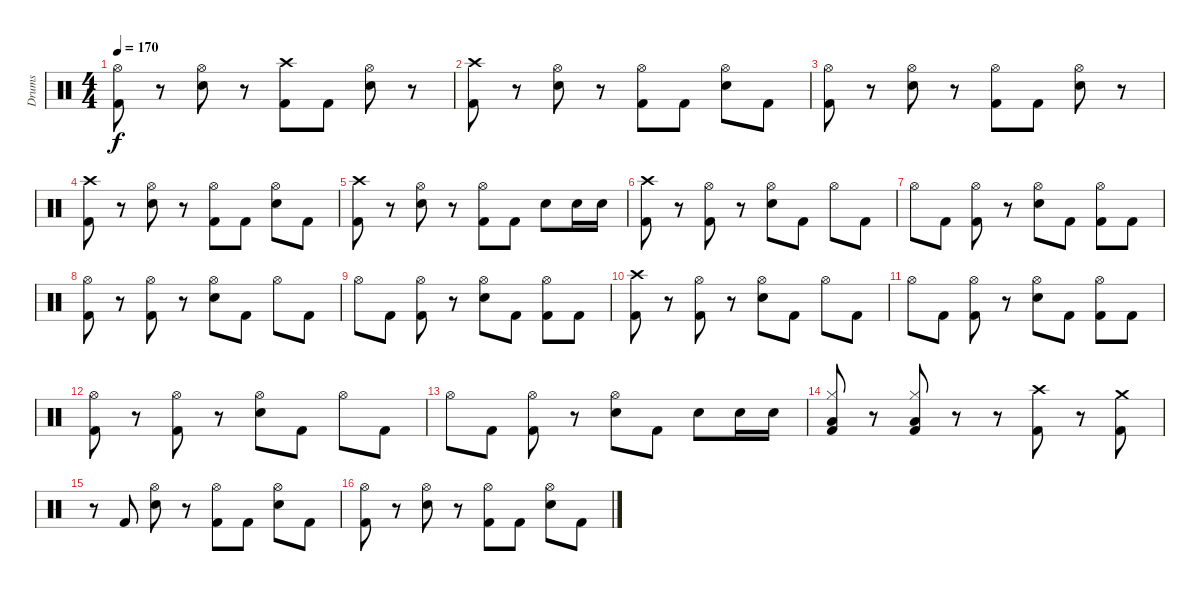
\track ("Drums" "Drums") {instrument percussion}
\staff {score}
\articulation defaults
\ts (4 4)
\tempo 170
\clef neutral
\ks c
("Hi-Hat (open)" "Kick (hit) 2").8{dy f} r.8 ("Hi-Hat (open)" "Electric Snare (hit)").8 r.8 ("Crash high (hit)" "Kick (hit) 2").8 "Kick (hit) 2".8 ("Hi-Hat (open)" "Electric Snare (hit)").8 r.8 |
("Crash high (hit)" "Kick (hit) 2").8 r.8 ("Hi-Hat (open)" "Electric Snare (hit)").8 r.8 ("Hi-Hat (open)" "Kick (hit) 2").8 "Kick (hit) 2".8 ("Hi-Hat (open)" "Electric Snare (hit)").8 "Kick (hit) 2".8 |
("Hi-Hat (open)" "Kick (hit) 2").8 r.8 ("Hi-Hat (open)" "Electric Snare (hit)").8 r.8 ("Hi-Hat (open)" "Kick (hit) 2").8 "Kick (hit) 2".8 ("Hi-Hat (open)" "Electric Snare (hit)").8 r.8 |
("Crash high (hit)" "Kick (hit) 2").8 r.8 ("Hi-Hat (open)" "Electric Snare (hit)").8 r.8 ("Hi-Hat (open)" "Kick (hit) 2").8 "Kick (hit) 2".8 ("Hi-Hat (open)" "Electric Snare (hit)").8 "Kick (hit) 2".8 |
("Crash high (hit)" "Kick (hit) 2").8 r.8 ("Hi-Hat (open)" "Electric Snare (hit)").8 r.8 ("Hi-Hat (open)" "Kick (hit) 2").8 "Kick (hit) 2".8 "Electric Snare (hit)".8 "Electric Snare (hit)".16 "Electric Snare (hit)".16 |
("Crash high (hit)" "Kick (hit) 2").8 r.8 ("Hi-Hat (open)" "Kick (hit) 2").8 r.8 ("Hi-Hat (open)" "Electric Snare (hit)").8 "Kick (hit) 2".8 "Hi-Hat (open)".8 "Kick (hit) 2".8 |
"Hi-Hat (open)".8 "Kick (hit) 2".8 ("Hi-Hat (open)" "Kick (hit) 2").8 r.8 ("Hi-Hat (open)" "Electric Snare (hit)").8 "Kick (hit) 2".8 ("Hi-Hat (open)" "Kick (hit) 2").8 "Kick (hit) 2".8 |
("Hi-Hat (open)" "Kick (hit) 2").8 r.8 ("Hi-Hat (open)" "Kick (hit) 2").8 r.8 ("Hi-Hat (open)" "Electric Snare (hit)").8 "Kick (hit) 2".8 "Hi-Hat (open)".8 "Kick (hit) 2".8 |
"Hi-Hat (open)".8 "Kick (hit) 2".8 ("Hi-Hat (open)" "Kick (hit) 2").8 r.8 ("Hi-Hat (open)" "Electric Snare (hit)").8 "Kick (hit) 2".8 ("Hi-Hat (open)" "Kick (hit) 2").8 "Kick (hit) 2".8 |
("Crash high (hit)" "Kick (hit) 2").8 r.8 ("Hi-Hat (open)" "Kick (hit) 2").8 r.8 ("Hi-Hat (open)" "Electric Snare (hit)").8 "Kick (hit) 2".8 "Hi-Hat (open)".8 "Kick (hit) 2".8 |
"Hi-Hat (open)".8 "Kick (hit) 2".8 ("Hi-Hat (open)" "Kick (hit) 2").8 r.8 ("Hi-Hat (open)" "Electric Snare (hit)").8 "Kick (hit) 2".8 ("Hi-Hat (open)" "Kick (hit) 2").8 "Kick (hit) 2".8 |
("Hi-Hat (open)" "Kick (hit) 2").8 r.8 ("Hi-Hat (open)" "Kick (hit) 2").8 r.8 ("Hi-Hat (open)" "Electric Snare (hit)").8 "Kick (hit) 2".8 "Hi-Hat (open)".8 "Kick (hit) 2".8 |
"Hi-Hat (open)".8 "Kick (hit) 2".8 ("Hi-Hat (open)" "Kick (hit) 2").8 r.8 ("Hi-Hat (open)" "Electric Snare (hit)").8 "Kick (hit) 2".8 "Electric Snare (hit)".8 "Electric Snare (hit)".16 "Electric Snare (hit)".16 |
("Hi-Hat (closed)" "Low Floor Tom (hit)" "Kick (hit) 2").8 r.8 ("Hi-Hat (closed)" "Low Floor Tom (hit)" "Kick (hit) 2").8 r.8 r.8 ("Crash high (hit)" "Kick (hit) 2").8 r.8 ("Crash medium (hit)" "Kick (hit) 2").8 |
r.8 "Kick (hit) 2".8 ("Hi-Hat (open)" "Electric Snare (hit)").8 r.8 ("Hi-Hat (open)" "Kick (hit) 2").8 "Kick (hit) 2".8 ("Hi-Hat (open)" "Electric Snare (hit)").8 "Kick (hit) 2".8 |
("Hi-Hat (open)" "Kick (hit) 2").8 r.8 ("Hi-Hat (open)" "Electric Snare (hit)").8 r.8 ("Hi-Hat (open)" "Kick (hit) 2").8 "Kick (hit) 2".8 ("Hi-Hat (open)" "Electric Snare (hit)").8 "Kick (hit) 2".8
